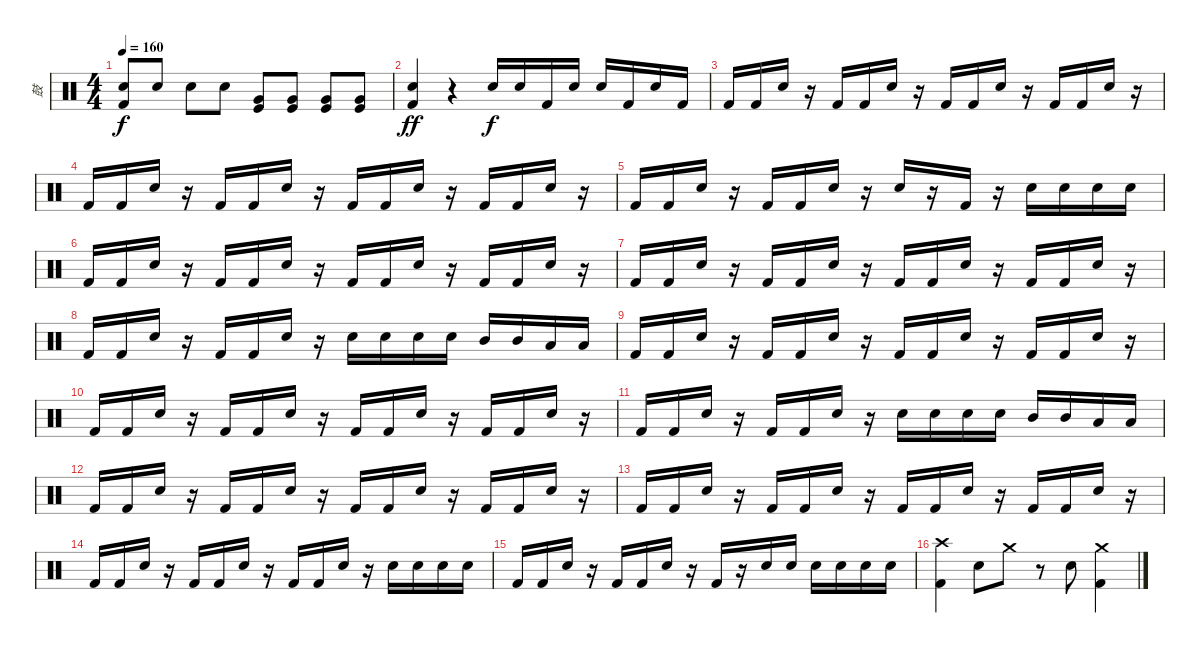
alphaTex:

\track ("鼓" "鼓") {instrument percussion}
\staff {score}
\articulation defaults
\ts (4 4)
\tempo 160
\clef neutral
\ks c
("Snare (hit) 2" "Kick (hit) 2").8{dy f} "Snare (hit) 2".8 "Snare (hit) 2".8 "Snare (hit) 2".8 ("Very Low Tom (hit)" "Kick (hit)").8 ("Very Low Tom (hit)" "Kick (hit)").8 ("Very Low Tom (hit)" "Kick (hit)").8 ("Very Low Tom (hit)" "Kick (hit)").8 |
("Snare (hit) 2" "Kick (hit) 2").4{dy ff} r.4 "Snare (hit) 2".16{dy f} "Snare (hit) 2".16 "Kick (hit) 2".16 "Snare (hit) 2".16 "Snare (hit) 2".16 "Kick (hit) 2".16 "Snare (hit) 2".16 "Kick (hit) 2".16 |
"Kick (hit) 2".16 "Kick (hit) 2".16 "Snare (hit) 2".16 r.16 "Kick (hit) 2".16 "Kick (hit) 2".16 "Snare (hit) 2".16 r.16 "Kick (hit) 2".16 "Kick (hit) 2".16 "Snare (hit) 2".16 r.16 "Kick (hit) 2".16 "Kick (hit) 2".16 "Snare (hit) 2".16 r.16 |
"Kick (hit) 2".16 "Kick (hit) 2".16 "Snare (hit) 2".16 r.16 "Kick (hit) 2".16 "Kick (hit) 2".16 "Snare (hit) 2".16 r.16 "Kick (hit) 2".16 "Kick (hit) 2".16 "Snare (hit) 2".16 r.16 "Kick (hit) 2".16 "Kick (hit) 2".16 "Snare (hit) 2".16 r.16 |
"Kick (hit) 2".16 "Kick (hit) 2".16 "Snare (hit) 2".16 r.16 "Kick (hit) 2".16 "Kick (hit) 2".16 "Snare (hit) 2".16 r.16 "Snare (hit) 2".16 r.16 "Kick (hit) 2".16 r.16 "Snare (hit) 2".16 "Snare (hit) 2".16 "Snare (hit) 2".16 "Snare (hit) 2".16 |
"Kick (hit) 2".16 "Kick (hit) 2".16 "Snare (hit) 2".16 r.16 "Kick (hit) 2".16 "Kick (hit) 2".16 "Snare (hit) 2".16 r.16 "Kick (hit) 2".16 "Kick (hit) 2".16 "Snare (hit) 2".16 r.16 "Kick (hit) 2".16 "Kick (hit) 2".16 "Snare (hit) 2".16 r.16 |
"Kick (hit) 2".16 "Kick (hit) 2".16 "Snare (hit) 2".16 r.16 "Kick (hit) 2".16 "Kick (hit) 2".16 "Snare (hit) 2".16 r.16 "Kick (hit) 2".16 "Kick (hit) 2".16 "Snare (hit) 2".16 r.16 "Kick (hit) 2".16 "Kick (hit) 2".16 "Snare (hit) 2".16 r.16 |
"Kick (hit) 2".16 "Kick (hit) 2".16 "Snare (hit) 2".16 r.16 "Kick (hit) 2".16 "Kick (hit) 2".16 "Snare (hit) 2".16 r.16 "Snare (hit) 2".16 "Snare (hit) 2".16 "Snare (hit) 2".16 "Snare (hit) 2".16 "Mid Tom (hit)".16 "Mid Tom (hit)".16 "Low Tom (hit)".16 "Low Tom (hit)".16 |
"Kick (hit) 2".16 "Kick (hit) 2".16 "Snare (hit) 2".16 r.16 "Kick (hit) 2".16 "Kick (hit) 2".16 "Snare (hit) 2".16 r.16 "Kick (hit) 2".16 "Kick (hit) 2".16 "Snare (hit) 2".16 r.16 "Kick (hit) 2".16 "Kick (hit) 2".16 "Snare (hit) 2".16 r.16 |
"Kick (hit) 2".16 "Kick (hit) 2".16 "Snare (hit) 2".16 r.16 "Kick (hit) 2".16 "Kick (hit) 2".16 "Snare (hit) 2".16 r.16 "Kick (hit) 2".16 "Kick (hit) 2".16 "Snare (hit) 2".16 r.16 "Kick (hit) 2".16 "Kick (hit) 2".16 "Snare (hit) 2".16 r.16 |
"Kick (hit) 2".16 "Kick (hit) 2".16 "Snare (hit) 2".16 r.16 "Kick (hit) 2".16 "Kick (hit) 2".16 "Snare (hit) 2".16 r.16 "Snare (hit) 2".16 "Snare (hit) 2".16 "Snare (hit) 2".16 "Snare (hit) 2".16 "Mid Tom (hit)".16 "Mid Tom (hit)".16 "Low Tom (hit)".16 "Low Tom (hit)".16 |
"Kick (hit) 2".16 "Kick (hit) 2".16 "Snare (hit) 2".16 r.16 "Kick (hit) 2".16 "Kick (hit) 2".16 "Snare (hit) 2".16 r.16 "Kick (hit) 2".16 "Kick (hit) 2".16 "Snare (hit) 2".16 r.16 "Kick (hit) 2".16 "Kick (hit) 2".16 "Snare (hit) 2".16 r.16 |
"Kick (hit) 2".16 "Kick (hit) 2".16 "Snare (hit) 2".16 r.16 "Kick (hit) 2".16 "Kick (hit) 2".16 "Snare (hit) 2".16 r.16 "Kick (hit) 2".16 "Kick (hit) 2".16 "Snare (hit) 2".16 r.16 "Kick (hit) 2".16 "Kick (hit) 2".16 "Snare (hit) 2".16 r.16 |
"Kick (hit) 2".16 "Kick (hit) 2".16 "Snare (hit) 2".16 r.16 "Kick (hit) 2".16 "Kick (hit) 2".16 "Snare (hit) 2".16 r.16 "Kick (hit) 2".16 "Kick (hit) 2".16 "Snare (hit) 2".16 r.16 "Snare (hit) 2".16 "Snare (hit) 2".16 "Snare (hit) 2".16 "Snare (hit) 2".16 |
"Kick (hit) 2".16 "Kick (hit) 2".16 "Snare (hit) 2".16 r.16 "Kick (hit) 2".16 "Kick (hit) 2".16 "Snare (hit) 2".16 r.16 "Kick (hit) 2".16 r.16 "Snare (hit) 2".16 "Snare (hit) 2".16 "Snare (hit) 2".16 "Snare (hit) 2".16 "Snare (hit) 2".16 "Snare (hit) 2".16 |
("Crash high (hit)" "Kick (hit) 2").4 "Snare (hit) 2".8 "Crash medium (hit)".8 r.8 "Snare (hit) 2".8 ("Crash medium (hit)" "Kick (hit) 2").4
